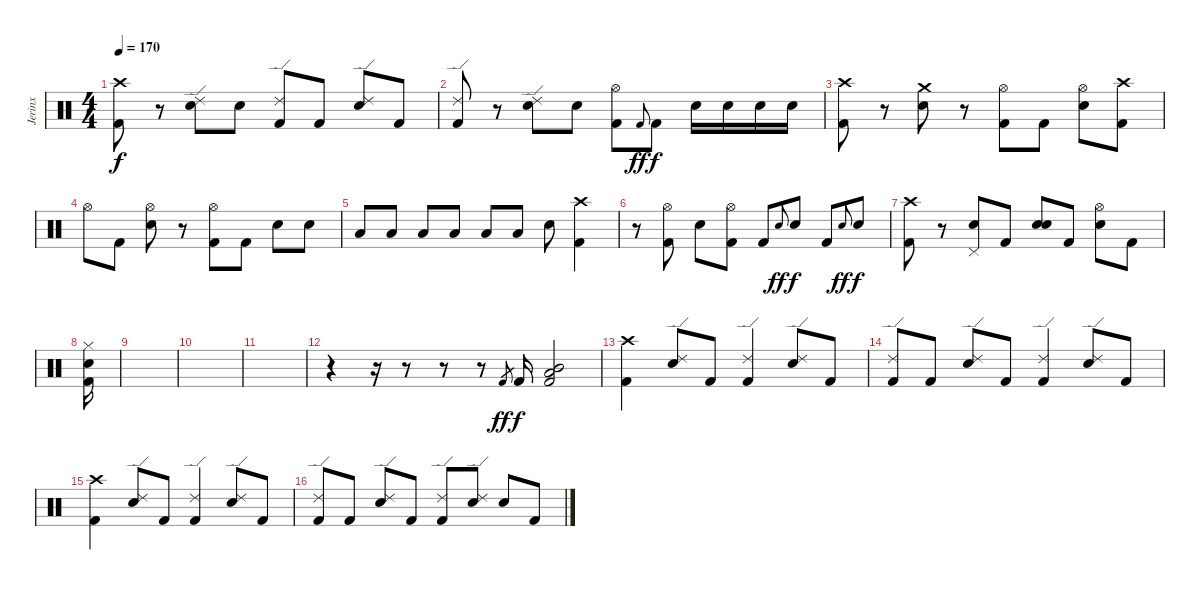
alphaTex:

\track ("Jerinx" "Jerinx") {instrument percussion}
\staff {score}
\articulation defaults
\ts (4 4)
\tempo 170
\clef neutral
\ks c
("Kick (hit) 2" "Crash high (hit)").8{dy f} r.8 ("Electric Snare (hit)" "Ride (edge) 2").8 "Electric Snare (hit)".8 ("Kick (hit) 2" "Ride (edge) 2").8 "Kick (hit) 2".8 ("Electric Snare (hit)" "Ride (edge) 2").8 "Kick (hit) 2".8 |
("Kick (hit) 2" "Ride (edge) 2").8 r.8 ("Electric Snare (hit)" "Ride (edge) 2").8 "Electric Snare (hit)".8 ("Kick (hit) 2" "Hi-Hat (open)").8 "Kick (hit) 2".8{gr onbeat dy ff} "Kick (hit) 2".8{dy f} "Electric Snare (hit)".16 "Electric Snare (hit)".16 "Electric Snare (hit)".16 "Electric Snare (hit)".16 |
("Kick (hit) 2" "Crash high (hit)").8 r.8 ("Electric Snare (hit)" "Crash medium (hit)").8 r.8 ("Kick (hit) 2" "Hi-Hat (open)").8 "Kick (hit) 2".8 ("Electric Snare (hit)" "Hi-Hat (open)").8 ("Kick (hit) 2" "Crash high (hit)").8 |
"Hi-Hat (open)".8 "Kick (hit) 2".8 ("Electric Snare (hit)" "Hi-Hat (open)").8 r.8 ("Kick (hit) 2" "Hi-Hat (open)").8 "Kick (hit) 2".8 "Electric Snare (hit)".8 "Electric Snare (hit)".8 |
"Low Tom (hit)".8 "Low Tom (hit)".8 "Low Tom (hit)".8 "Low Floor Tom (hit)".8 "Low Floor Tom (hit)".8 "Low Floor Tom (hit)".8 "Electric Snare (hit)".8 ("Kick (hit) 2" "Crash high (hit)").4 |
r.8 ("Kick (hit) 2" "Hi-Hat (open)").8 "Electric Snare (hit)".8 ("Kick (hit) 2" "Hi-Hat (open)").8 "Kick (hit) 2".8 "Electric Snare (hit)"{h}.8{gr onbeat dy ff} "Electric Snare (hit)".8{dy f} "Kick (hit) 2".8 "Electric Snare (hit)"{h}.8{gr onbeat dy ff} "Electric Snare (hit)".8{dy f} |
("Kick (hit) 2" "Crash high (hit)").8 r.8 ("Electric Snare (hit)" "Pedal Hi-Hat (hit)").8 "Kick (hit) 2".8 ("Electric Snare (hit)" "Snare (hit)").8 "Kick (hit) 2".8 ("Electric Snare (hit)" "Hi-Hat (open)").8 "Kick (hit) 2".8 |
("Kick (hit) 2" "Electric Snare (hit)" "Hi-Hat (closed)").16 |
|
|
|
r.4 r.16 r.8 r.8 r.8 "Kick (hit) 2".8{gr dy ff} "Kick (hit) 2".16{dy f} ("Kick (hit) 2" "Low Floor Tom (hit)" "Mid Tom (hit)").2 |
("Kick (hit) 2" "Crash high (hit)").4 ("Electric Snare (hit)" "Ride (edge) 2").8 "Kick (hit) 2".8 ("Kick (hit) 2" "Ride (edge) 2").4 ("Electric Snare (hit)" "Ride (edge) 2").8 "Kick (hit) 2".8 |
("Kick (hit) 2" "Ride (edge) 2").8 "Kick (hit) 2".8 ("Electric Snare (hit)" "Ride (edge) 2").8 "Kick (hit) 2".8 ("Kick (hit) 2" "Ride (edge) 2").4 ("Electric Snare (hit)" "Ride (edge) 2").8 "Kick (hit) 2".8 |
("Kick (hit) 2" "Crash high (hit)").4 ("Electric Snare (hit)" "Ride (edge) 2").8 "Kick (hit) 2".8 ("Kick (hit) 2" "Ride (edge) 2").4 ("Electric Snare (hit)" "Ride (edge) 2").8 "Kick (hit) 2".8 |
("Kick (hit) 2" "Ride (edge) 2").8 "Kick (hit) 2".8 ("Electric Snare (hit)" "Ride (edge) 2").8 "Kick (hit) 2".8 ("Kick (hit) 2" "Ride (edge) 2").8 ("Electric Snare (hit)" "Ride (edge) 2").8 "Electric Snare (hit)".8 "Kick (hit) 2".8
